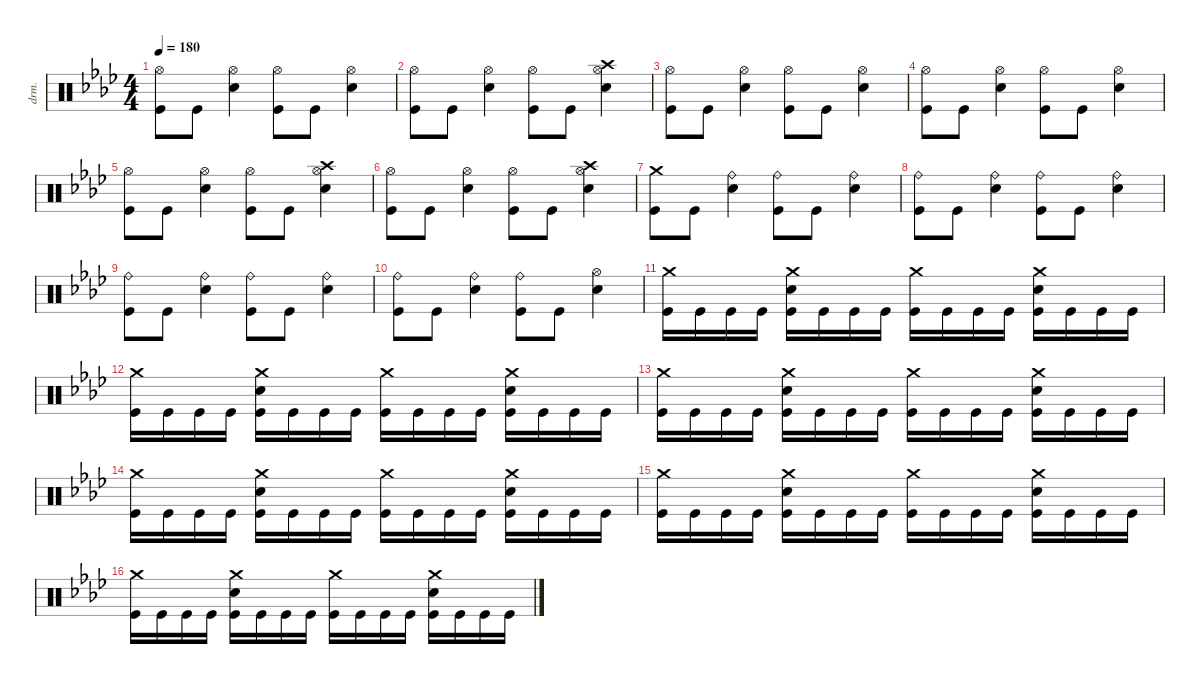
\defaultSystemsLayout 4
\hideDynamics
\bracketExtendMode nobrackets
\track ("Percussion" "drm.") {instrument percussion}
\staff {score}
\articulation defaults
\ts (4 4)
\tempo 180
\clef neutral
\ks fminor
("Hi-Hat (open)"{acc forcenatural} "Kick (hit)"{acc forcenatural}).8{dy f beam Down} "Kick (hit)"{acc forcenatural}.8{beam Down} ("Hi-Hat (open)"{acc forcenatural} "Snare (hit) 2"{acc forcenatural}).4{beam Down} ("Hi-Hat (open)"{acc forcenatural} "Kick (hit)"{acc forcenatural}).8{beam Down} "Kick (hit)"{acc forcenatural}.8{beam Down} ("Hi-Hat (open)"{acc forcenatural} "Snare (hit) 2"{acc forcenatural}).4{beam Down} |
("Hi-Hat (open)"{acc forcenatural} "Kick (hit)"{acc forcenatural}).8{beam Down} "Kick (hit)"{acc forcenatural}.8{beam Down} ("Hi-Hat (open)"{acc forcenatural} "Snare (hit) 2"{acc forcenatural}).4{beam Down} ("Hi-Hat (open)"{acc forcenatural} "Kick (hit)"{acc forcenatural}).8{beam Down} "Kick (hit)"{acc forcenatural}.8{beam Down} ("Hi-Hat (open)"{acc forcenatural} "Crash high (hit)"{acc forcenatural} "Snare (hit) 2"{acc forcenatural}).4{beam Down} |
("Hi-Hat (open)"{acc forcenatural} "Kick (hit)"{acc forcenatural}).8{beam Down} "Kick (hit)"{acc forcenatural}.8{beam Down} ("Hi-Hat (open)"{acc forcenatural} "Snare (hit) 2"{acc forcenatural}).4{beam Down} ("Hi-Hat (open)"{acc forcenatural} "Kick (hit)"{acc forcenatural}).8{beam Down} "Kick (hit)"{acc forcenatural}.8{beam Down} ("Hi-Hat (open)"{acc forcenatural} "Snare (hit) 2"{acc forcenatural}).4{beam Down} |
("Hi-Hat (open)"{acc forcenatural} "Kick (hit)"{acc forcenatural}).8{beam Down} "Kick (hit)"{acc forcenatural}.8{beam Down} ("Hi-Hat (open)"{acc forcenatural} "Snare (hit) 2"{acc forcenatural}).4{beam Down} ("Hi-Hat (open)"{acc forcenatural} "Kick (hit)"{acc forcenatural}).8{beam Down} "Kick (hit)"{acc forcenatural}.8{beam Down} ("Hi-Hat (open)"{acc forcenatural} "Snare (hit) 2"{acc forcenatural}).4{beam Down} |
("Hi-Hat (open)"{acc forcenatural} "Kick (hit)"{acc forcenatural}).8{beam Down} "Kick (hit)"{acc forcenatural}.8{beam Down} ("Hi-Hat (open)"{acc forcenatural} "Snare (hit) 2"{acc forcenatural}).4{beam Down} ("Hi-Hat (open)"{acc forcenatural} "Kick (hit)"{acc forcenatural}).8{beam Down} "Kick (hit)"{acc forcenatural}.8{beam Down} ("Hi-Hat (open)"{acc forcenatural} "Crash high (hit)"{acc forcenatural} "Snare (hit) 2"{acc forcenatural}).4{beam Down} |
("Hi-Hat (open)"{acc forcenatural} "Kick (hit)"{acc forcenatural}).8{beam Down} "Kick (hit)"{acc forcenatural}.8{beam Down} ("Hi-Hat (open)"{acc forcenatural} "Snare (hit) 2"{acc forcenatural}).4{beam Down} ("Hi-Hat (open)"{acc forcenatural} "Kick (hit)"{acc forcenatural}).8{beam Down} "Kick (hit)"{acc forcenatural}.8{beam Down} ("Hi-Hat (open)"{acc forcenatural} "Crash high (hit)"{acc forcenatural} "Snare (hit) 2"{acc forcenatural}).4{beam Down} |
("Crash medium (hit)"{acc forcenatural} "Kick (hit)"{acc forcenatural}).8{beam Down} "Kick (hit)"{acc forcenatural}.8{beam Down} ("Ride (bell)"{acc forcenatural} "Snare (hit) 2"{acc forcenatural}).4{beam Down} ("Ride (bell)"{acc forcenatural} "Kick (hit)"{acc forcenatural}).8{beam Down} "Kick (hit)"{acc forcenatural}.8{beam Down} ("Ride (bell)"{acc forcenatural} "Snare (hit) 2"{acc forcenatural}).4{beam Down} |
("Ride (bell)"{acc forcenatural} "Kick (hit)"{acc forcenatural}).8{beam Down} "Kick (hit)"{acc forcenatural}.8{beam Down} ("Ride (bell)"{acc forcenatural} "Snare (hit) 2"{acc forcenatural}).4{beam Down} ("Ride (bell)"{acc forcenatural} "Kick (hit)"{acc forcenatural}).8{beam Down} "Kick (hit)"{acc forcenatural}.8{beam Down} ("Ride (bell)"{acc forcenatural} "Snare (hit) 2"{acc forcenatural}).4{beam Down} |
("Ride (bell)"{acc forcenatural} "Kick (hit)"{acc forcenatural}).8{beam Down} "Kick (hit)"{acc forcenatural}.8{beam Down} ("Ride (bell)"{acc forcenatural} "Snare (hit) 2"{acc forcenatural}).4{beam Down} ("Ride (bell)"{acc forcenatural} "Kick (hit)"{acc forcenatural}).8{beam Down} "Kick (hit)"{acc forcenatural}.8{beam Down} ("Ride (bell)"{acc forcenatural} "Snare (hit) 2"{acc forcenatural}).4{beam Down} |
("Ride (bell)"{acc forcenatural} "Kick (hit)"{acc forcenatural}).8{beam Down} "Kick (hit)"{acc forcenatural}.8{beam Down} ("Ride (bell)"{acc forcenatural} "Snare (hit) 2"{acc forcenatural}).4{beam Down} ("Ride (bell)"{acc forcenatural} "Kick (hit)"{acc forcenatural}).8{beam Down} "Kick (hit)"{acc forcenatural}.8{beam Down} ("Hi-Hat (open)"{acc forcenatural} "Snare (hit) 2"{acc forcenatural}).4{beam Down} |
("Crash medium (hit)"{acc forcenatural} "Kick (hit)"{acc forcenatural}).16{beam Down} "Kick (hit)"{acc forcenatural}.16{beam Down} "Kick (hit)"{acc forcenatural}.16{beam Down} "Kick (hit)"{acc forcenatural}.16{beam Down} ("Crash medium (hit)"{acc forcenatural} "Snare (hit) 2"{acc forcenatural} "Kick (hit)"{acc forcenatural}).16{beam Down} "Kick (hit)"{acc forcenatural}.16{beam Down} "Kick (hit)"{acc forcenatural}.16{beam Down} "Kick (hit)"{acc forcenatural}.16{beam Down} ("Crash medium (hit)"{acc forcenatural} "Kick (hit)"{acc forcenatural}).16{beam Down} "Kick (hit)"{acc forcenatural}.16{beam Down} "Kick (hit)"{acc forcenatural}.16{beam Down} "Kick (hit)"{acc forcenatural}.16{beam Down} ("Crash medium (hit)"{acc forcenatural} "Snare (hit) 2"{acc forcenatural} "Kick (hit)"{acc forcenatural}).16{beam Down} "Kick (hit)"{acc forcenatural}.16{beam Down} "Kick (hit)"{acc forcenatural}.16{beam Down} "Kick (hit)"{acc forcenatural}.16{beam Down} |
("Crash medium (hit)"{acc forcenatural} "Kick (hit)"{acc forcenatural}).16{beam Down} "Kick (hit)"{acc forcenatural}.16{beam Down} "Kick (hit)"{acc forcenatural}.16{beam Down} "Kick (hit)"{acc forcenatural}.16{beam Down} ("Crash medium (hit)"{acc forcenatural} "Snare (hit) 2"{acc forcenatural} "Kick (hit)"{acc forcenatural}).16{beam Down} "Kick (hit)"{acc forcenatural}.16{beam Down} "Kick (hit)"{acc forcenatural}.16{beam Down} "Kick (hit)"{acc forcenatural}.16{beam Down} ("Crash medium (hit)"{acc forcenatural} "Kick (hit)"{acc forcenatural}).16{beam Down} "Kick (hit)"{acc forcenatural}.16{beam Down} "Kick (hit)"{acc forcenatural}.16{beam Down} "Kick (hit)"{acc forcenatural}.16{beam Down} ("Crash medium (hit)"{acc forcenatural} "Snare (hit) 2"{acc forcenatural} "Kick (hit)"{acc forcenatural}).16{beam Down} "Kick (hit)"{acc forcenatural}.16{beam Down} "Kick (hit)"{acc forcenatural}.16{beam Down} "Kick (hit)"{acc forcenatural}.16{beam Down} |
("Crash medium (hit)"{acc forcenatural} "Kick (hit)"{acc forcenatural}).16{beam Down} "Kick (hit)"{acc forcenatural}.16{beam Down} "Kick (hit)"{acc forcenatural}.16{beam Down} "Kick (hit)"{acc forcenatural}.16{beam Down} ("Crash medium (hit)"{acc forcenatural} "Snare (hit) 2"{acc forcenatural} "Kick (hit)"{acc forcenatural}).16{beam Down} "Kick (hit)"{acc forcenatural}.16{beam Down} "Kick (hit)"{acc forcenatural}.16{beam Down} "Kick (hit)"{acc forcenatural}.16{beam Down} ("Crash medium (hit)"{acc forcenatural} "Kick (hit)"{acc forcenatural}).16{beam Down} "Kick (hit)"{acc forcenatural}.16{beam Down} "Kick (hit)"{acc forcenatural}.16{beam Down} "Kick (hit)"{acc forcenatural}.16{beam Down} ("Crash medium (hit)"{acc forcenatural} "Snare (hit) 2"{acc forcenatural} "Kick (hit)"{acc forcenatural}).16{beam Down} "Kick (hit)"{acc forcenatural}.16{beam Down} "Kick (hit)"{acc forcenatural}.16{beam Down} "Kick (hit)"{acc forcenatural}.16{beam Down} |
("Crash medium (hit)"{acc forcenatural} "Kick (hit)"{acc forcenatural}).16{beam Down} "Kick (hit)"{acc forcenatural}.16{beam Down} "Kick (hit)"{acc forcenatural}.16{beam Down} "Kick (hit)"{acc forcenatural}.16{beam Down} ("Crash medium (hit)"{acc forcenatural} "Snare (hit) 2"{acc forcenatural} "Kick (hit)"{acc forcenatural}).16{beam Down} "Kick (hit)"{acc forcenatural}.16{beam Down} "Kick (hit)"{acc forcenatural}.16{beam Down} "Kick (hit)"{acc forcenatural}.16{beam Down} ("Crash medium (hit)"{acc forcenatural} "Kick (hit)"{acc forcenatural}).16{beam Down} "Kick (hit)"{acc forcenatural}.16{beam Down} "Kick (hit)"{acc forcenatural}.16{beam Down} "Kick (hit)"{acc forcenatural}.16{beam Down} ("Crash medium (hit)"{acc forcenatural} "Snare (hit) 2"{acc forcenatural} "Kick (hit)"{acc forcenatural}).16{beam Down} "Kick (hit)"{acc forcenatural}.16{beam Down} "Kick (hit)"{acc forcenatural}.16{beam Down} "Kick (hit)"{acc forcenatural}.16{beam Down} |
("Crash medium (hit)"{acc forcenatural} "Kick (hit)"{acc forcenatural}).16{beam Down} "Kick (hit)"{acc forcenatural}.16{beam Down} "Kick (hit)"{acc forcenatural}.16{beam Down} "Kick (hit)"{acc forcenatural}.16{beam Down} ("Crash medium (hit)"{acc forcenatural} "Snare (hit) 2"{acc forcenatural} "Kick (hit)"{acc forcenatural}).16{beam Down} "Kick (hit)"{acc forcenatural}.16{beam Down} "Kick (hit)"{acc forcenatural}.16{beam Down} "Kick (hit)"{acc forcenatural}.16{beam Down} ("Crash medium (hit)"{acc forcenatural} "Kick (hit)"{acc forcenatural}).16{beam Down} "Kick (hit)"{acc forcenatural}.16{beam Down} "Kick (hit)"{acc forcenatural}.16{beam Down} "Kick (hit)"{acc forcenatural}.16{beam Down} ("Crash medium (hit)"{acc forcenatural} "Snare (hit) 2"{acc forcenatural} "Kick (hit)"{acc forcenatural}).16{beam Down} "Kick (hit)"{acc forcenatural}.16{beam Down} "Kick (hit)"{acc forcenatural}.16{beam Down} "Kick (hit)"{acc forcenatural}.16{beam Down} |
("Crash medium (hit)"{acc forcenatural} "Kick (hit)"{acc forcenatural}).16{beam Down} "Kick (hit)"{acc forcenatural}.16{beam Down} "Kick (hit)"{acc forcenatural}.16{beam Down} "Kick (hit)"{acc forcenatural}.16{beam Down} ("Crash medium (hit)"{acc forcenatural} "Snare (hit) 2"{acc forcenatural} "Kick (hit)"{acc forcenatural}).16{beam Down} "Kick (hit)"{acc forcenatural}.16{beam Down} "Kick (hit)"{acc forcenatural}.16{beam Down} "Kick (hit)"{acc forcenatural}.16{beam Down} ("Crash medium (hit)"{acc forcenatural} "Kick (hit)"{acc forcenatural}).16{beam Down} "Kick (hit)"{acc forcenatural}.16{beam Down} "Kick (hit)"{acc forcenatural}.16{beam Down} "Kick (hit)"{acc forcenatural}.16{beam Down} ("Crash medium (hit)"{acc forcenatural} "Snare (hit) 2"{acc forcenatural} "Kick (hit)"{acc forcenatural}).16{beam Down} "Kick (hit)"{acc forcenatural}.16{beam Down} "Kick (hit)"{acc forcenatural}.16{beam Down} "Kick (hit)"{acc forcenatural}.16{beam Down}
